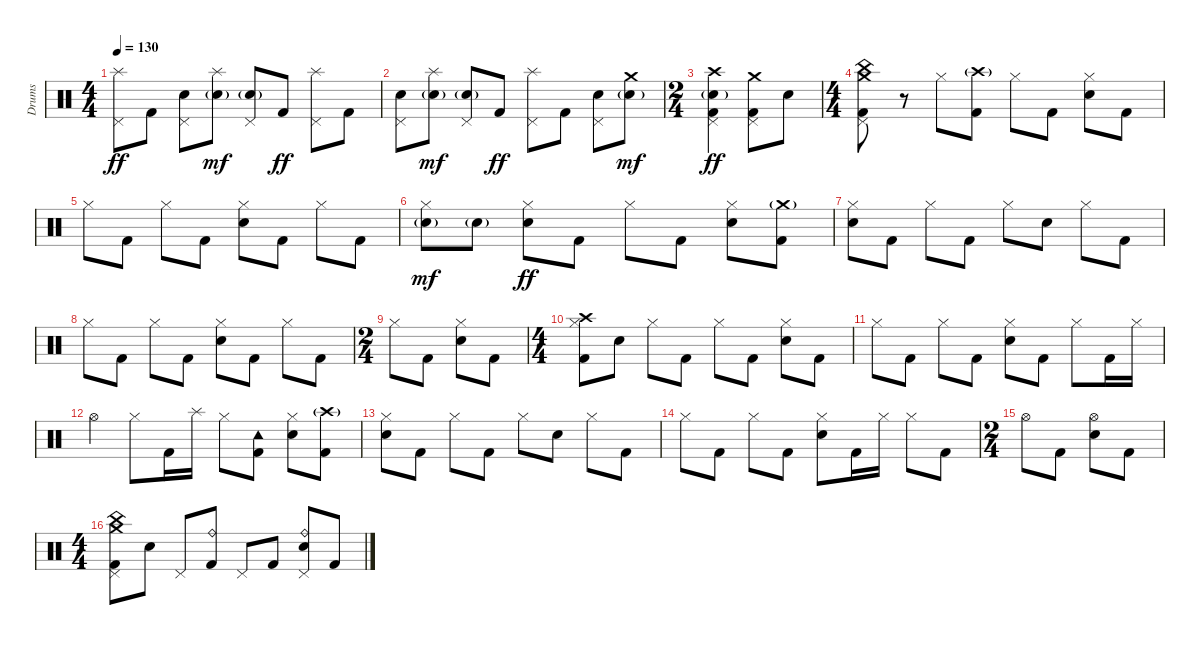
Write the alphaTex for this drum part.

\track ("Drums" "Drums") {instrument percussion}
\staff {score}
\articulation defaults
\ts (4 4)
\tempo 130
\clef neutral
\ks c
("Splash (hit)" "Pedal Hi-Hat (hit)").8{dy ff} "Kick (hit) 2".8 ("Pedal Hi-Hat (hit)" "Electric Snare (hit)").8 ("Splash (hit)" "Electric Snare (hit)"{g}).8{dy mf} ("Pedal Hi-Hat (hit)" "Electric Snare (hit)"{g}).8 "Kick (hit) 2".8{dy ff} ("Splash (hit)" "Pedal Hi-Hat (hit)").8 "Kick (hit) 2".8 |
("Pedal Hi-Hat (hit)" "Electric Snare (hit)").8 ("Splash (hit)" "Electric Snare (hit)"{g}).8{dy mf} ("Pedal Hi-Hat (hit)" "Electric Snare (hit)"{g}).8 "Kick (hit) 2".8{dy ff} ("Splash (hit)" "Pedal Hi-Hat (hit)").8 "Kick (hit) 2".8 ("Pedal Hi-Hat (hit)" "Electric Snare (hit)").8 ("Crash medium (hit)" "Electric Snare (hit)"{g}).8{dy mf} |
\ts (2 4)
("Crash high (hit)" "Pedal Hi-Hat (hit)" "Electric Snare (hit)"{g} "Kick (hit) 2").4{dy ff} ("Crash medium (hit)" "Pedal Hi-Hat (hit)" "Kick (hit) 2").8 "Electric Snare (hit)".8 |
\ts (4 4)
("Crash medium (hit)" "China (hit)" "Pedal Hi-Hat (hit)" "Kick (hit) 2").8 r.8 "Hi-Hat (closed)".8 ("Crash high (hit)"{g} "Kick (hit) 2").8 "Hi-Hat (closed)".8 "Kick (hit) 2".8 ("Hi-Hat (closed)" "Electric Snare (hit)").8 "Kick (hit) 2".8 |
"Hi-Hat (closed)".8 "Kick (hit) 2".8 "Hi-Hat (closed)".8 "Kick (hit) 2".8 ("Hi-Hat (closed)" "Electric Snare (hit)").8 "Kick (hit) 2".8 "Hi-Hat (closed)".8 "Kick (hit) 2".8 |
("Hi-Hat (closed)" "Electric Snare (hit)"{g}).8{dy mf} "Electric Snare (hit)"{g}.8 ("Hi-Hat (closed)" "Electric Snare (hit)").8{dy ff} "Kick (hit) 2".8 "Hi-Hat (closed)".8 "Kick (hit) 2".8 ("Hi-Hat (closed)" "Electric Snare (hit)").8 ("Crash medium (hit)"{g} "Kick (hit) 2").8 |
("Hi-Hat (closed)" "Electric Snare (hit)").8 "Kick (hit) 2".8 "Hi-Hat (closed)".8 "Kick (hit) 2".8 "Hi-Hat (closed)".8 "Electric Snare (hit)".8 "Hi-Hat (closed)".8 "Kick (hit) 2".8 |
"Hi-Hat (closed)".8 "Kick (hit) 2".8 "Hi-Hat (closed)".8 "Kick (hit) 2".8 ("Hi-Hat (closed)" "Electric Snare (hit)").8 "Kick (hit) 2".8 "Hi-Hat (closed)".8 "Kick (hit) 2".8 |
\ts (2 4)
"Hi-Hat (closed)".8 "Kick (hit) 2".8 ("Hi-Hat (closed)" "Electric Snare (hit)").8 "Kick (hit) 2".8 |
\ts (4 4)
("Crash high (hit)" "Hi-Hat (closed)" "Kick (hit) 2").8 "Electric Snare (hit)".8 "Hi-Hat (closed)".8 "Kick (hit) 2".8 "Hi-Hat (closed)".8 "Kick (hit) 2".8 ("Hi-Hat (closed)" "Electric Snare (hit)").8 "Kick (hit) 2".8 |
"Hi-Hat (closed)".8 "Kick (hit) 2".8 "Hi-Hat (closed)".8 "Kick (hit) 2".8 ("Hi-Hat (closed)" "Electric Snare (hit)").8 "Kick (hit) 2".8 "Hi-Hat (closed)".8 "Kick (hit) 2".16 "Hi-Hat (closed)".16 |
"Hi-Hat (open)".4 "Hi-Hat (closed)".8 "Kick (hit) 2".16 "Splash (hit)".16 "Hi-Hat (closed)".8 ("Tambourine (hit)" "Kick (hit) 2").8 ("Hi-Hat (closed)" "Electric Snare (hit)").8 ("Crash high (hit)"{g} "Kick (hit) 2").8 |
("Hi-Hat (closed)" "Electric Snare (hit)").8 "Kick (hit) 2".8 "Hi-Hat (closed)".8 "Kick (hit) 2".8 "Hi-Hat (closed)".8 "Electric Snare (hit)".8 "Hi-Hat (closed)".8 "Kick (hit) 2".8 |
"Hi-Hat (closed)".8 "Kick (hit) 2".8 "Hi-Hat (closed)".8 "Kick (hit) 2".8 ("Hi-Hat (closed)" "Electric Snare (hit)").8 "Kick (hit) 2".16 "Hi-Hat (closed)".16 "Hi-Hat (closed)".8 "Kick (hit) 2".8 |
\ts (2 4)
"Hi-Hat (open)".8 "Kick (hit) 2".8 ("Hi-Hat (open)" "Electric Snare (hit)").8 "Kick (hit) 2".8 |
\ts (4 4)
("Crash medium (hit)" "China (hit)" "Pedal Hi-Hat (hit)" "Kick (hit) 2").8 "Electric Snare (hit)".8 "Pedal Hi-Hat (hit)".8 ("Ride (bell)" "Kick (hit) 2").8 "Pedal Hi-Hat (hit)".8 "Kick (hit) 2".8 ("Ride (bell)" "Pedal Hi-Hat (hit)" "Electric Snare (hit)").8 "Kick (hit) 2".8
